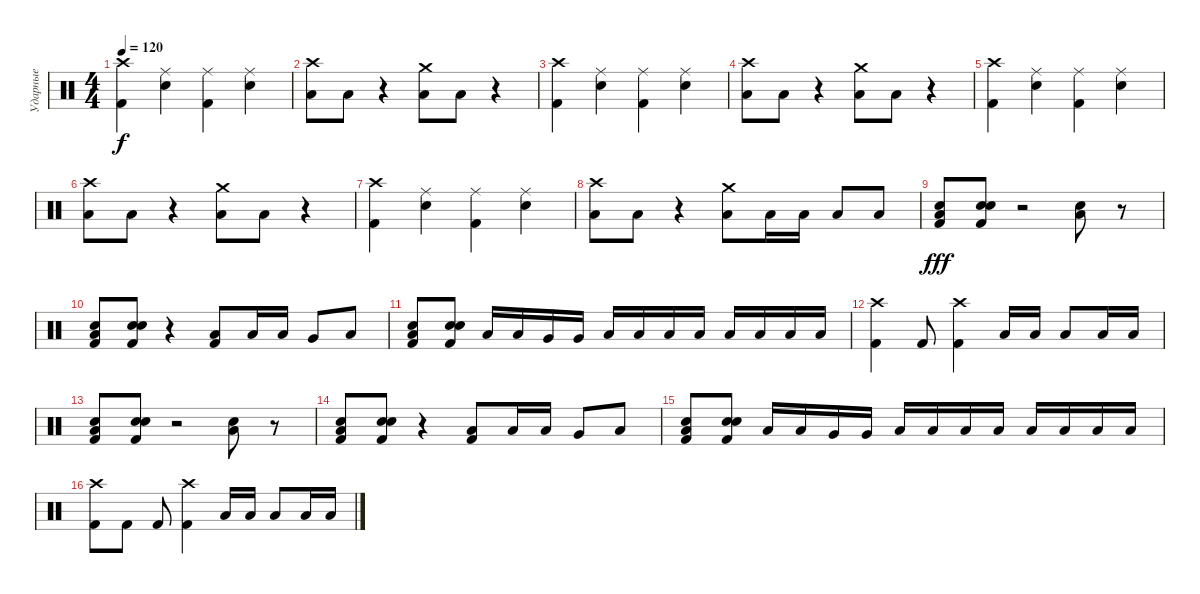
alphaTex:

\track ("Ударные" "Ударные") {instrument percussion}
\staff {score}
\articulation defaults
\ts (4 4)
\tempo 120
\clef neutral
\ks c
("Crash high (hit)" "Kick (hit) 2").4{dy f} ("Ride (middle)" "Snare (hit) 2").4 ("Ride (middle)" "Kick (hit) 2").4 ("Ride (middle)" "Snare (hit) 2").4 |
("Low Tom (hit)" "Crash high (hit)").8 "Low Tom (hit)".8 r.4 ("Low Floor Tom (hit)" "Crash medium (hit)").8 "Low Floor Tom (hit)".8 r.4 |
("Crash high (hit)" "Kick (hit) 2").4 ("Ride (middle)" "Snare (hit) 2").4 ("Ride (middle)" "Kick (hit) 2").4 ("Ride (middle)" "Snare (hit) 2").4 |
("Low Tom (hit)" "Crash high (hit)").8 "Low Tom (hit)".8 r.4 ("Low Floor Tom (hit)" "Crash medium (hit)").8 "Low Floor Tom (hit)".8 r.4 |
("Crash high (hit)" "Kick (hit) 2").4 ("Ride (middle)" "Snare (hit) 2").4 ("Ride (middle)" "Kick (hit) 2").4 ("Ride (middle)" "Snare (hit) 2").4 |
("Low Tom (hit)" "Crash high (hit)").8 "Low Tom (hit)".8 r.4 ("Low Floor Tom (hit)" "Crash medium (hit)").8 "Low Floor Tom (hit)".8 r.4 |
("Crash high (hit)" "Kick (hit) 2").4 ("Ride (middle)" "Snare (hit) 2").4 ("Ride (middle)" "Kick (hit) 2").4 ("Ride (middle)" "Snare (hit) 2").4 |
("Low Tom (hit)" "Crash high (hit)").8 "Low Tom (hit)".8 r.4 ("Low Floor Tom (hit)" "Crash medium (hit)").8 "Low Tom (hit)".16 "Low Tom (hit)".16 "Low Floor Tom (hit)".8 "Low Floor Tom (hit)".8 |
("Low Floor Tom (hit)" "Kick (hit) 2" "Snare (hit) 2").8{dy fff} ("Snare (hit)" "Kick (hit) 2" "Snare (hit) 2").8 r.2 ("Snare (hit) 2" "Low Floor Tom (hit)").8 r.8 |
("Low Floor Tom (hit)" "Kick (hit) 2" "Snare (hit) 2").8 ("Snare (hit)" "Kick (hit) 2" "Snare (hit) 2").8 r.4 ("Low Floor Tom (hit)" "Kick (hit) 2").8 "Low Tom (hit)".16 "Low Tom (hit)".16 "Very Low Tom (hit)".8 "Low Floor Tom (hit)".8 |
("Low Floor Tom (hit)" "Kick (hit) 2" "Snare (hit) 2").8 ("Snare (hit)" "Kick (hit) 2" "Snare (hit) 2").8 "Low Tom (hit)".16 "Low Tom (hit)".16 "Very Low Tom (hit)".16 "Very Low Tom (hit)".16 "Low Tom (hit)".16 "Low Tom (hit)".16 "Low Tom (hit)".16 "Low Tom (hit)".16 "Low Floor Tom (hit)".16 "Low Floor Tom (hit)".16 "Low Floor Tom (hit)".16 "Low Floor Tom (hit)".16 |
("Crash high (hit)" "Kick (hit) 2").4 "Kick (hit) 2".8 ("Crash high (hit)" "Kick (hit) 2").4 "Low Tom (hit)".16 "Low Tom (hit)".16 "Low Tom (hit)".8 "Low Tom (hit)".16 "Low Tom (hit)".16 |
("Low Floor Tom (hit)" "Kick (hit) 2" "Snare (hit) 2").8 ("Snare (hit)" "Kick (hit) 2" "Snare (hit) 2").8 r.2 ("Snare (hit) 2" "Low Floor Tom (hit)").8 r.8 |
("Low Floor Tom (hit)" "Kick (hit) 2" "Snare (hit) 2").8 ("Snare (hit)" "Kick (hit) 2" "Snare (hit) 2").8 r.4 ("Low Floor Tom (hit)" "Kick (hit) 2").8 "Low Tom (hit)".16 "Low Tom (hit)".16 "Very Low Tom (hit)".8 "Low Floor Tom (hit)".8 |
("Low Floor Tom (hit)" "Kick (hit) 2" "Snare (hit) 2").8 ("Snare (hit)" "Kick (hit) 2" "Snare (hit) 2").8 "Low Tom (hit)".16 "Low Tom (hit)".16 "Very Low Tom (hit)".16 "Very Low Tom (hit)".16 "Low Tom (hit)".16 "Low Tom (hit)".16 "Low Tom (hit)".16 "Low Tom (hit)".16 "Low Floor Tom (hit)".16 "Low Floor Tom (hit)".16 "Low Floor Tom (hit)".16 "Low Floor Tom (hit)".16 |
("Crash high (hit)" "Kick (hit) 2").8 "Kick (hit) 2".8 "Kick (hit) 2".8 ("Crash high (hit)" "Kick (hit) 2").4 "Low Tom (hit)".16 "Low Tom (hit)".16 "Low Tom (hit)".8 "Low Tom (hit)".16 "Low Tom (hit)".16
